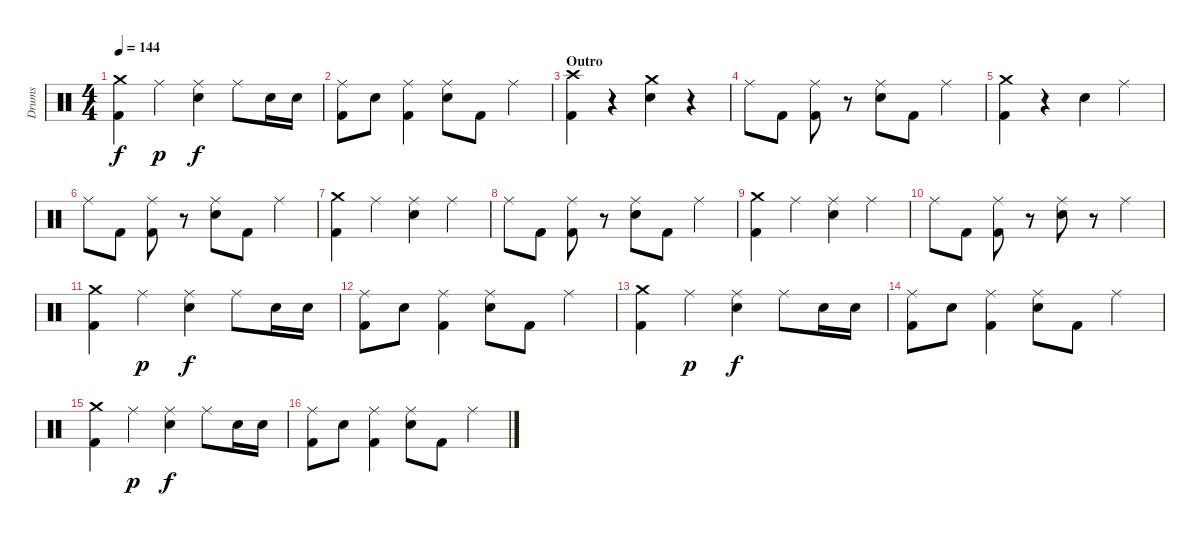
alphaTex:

\track ("Drums" "Drums") {instrument percussion}
\staff {score}
\articulation defaults
\ts (4 4)
\tempo 144
\clef neutral
\ks c
("Crash medium (hit)" "Kick (hit) 2").4{dy f} "Ride (middle)".4{dy p} ("Ride (middle)" "Snare (hit) 2").4{dy f} "Ride (middle)".8 "Snare (hit) 2".16 "Snare (hit) 2".16 |
("Ride (middle)" "Kick (hit) 2").8 "Snare (hit) 2".8 ("Ride (middle)" "Kick (hit) 2").4 ("Ride (middle)" "Snare (hit) 2").8 "Kick (hit) 2".8 "Ride (middle)".4 |
\section ("" "Outro")
("Crash high (hit)" "Kick (hit) 2").4 r.4 ("Crash medium (hit)" "Snare (hit) 2").4 r.4 |
"Ride (middle)".8 "Kick (hit) 2".8 ("Ride (middle)" "Kick (hit) 2").8 r.8 ("Ride (middle)" "Snare (hit) 2").8 "Kick (hit) 2".8 "Ride (middle)".4 |
("Crash medium (hit)" "Kick (hit) 2").4 r.4 "Snare (hit) 2".4 "Ride (middle)".4 |
"Ride (middle)".8 "Kick (hit) 2".8 ("Ride (middle)" "Kick (hit) 2").8 r.8 ("Ride (middle)" "Snare (hit) 2").8 "Kick (hit) 2".8 "Ride (middle)".4 |
("Crash medium (hit)" "Kick (hit) 2").4 "Ride (middle)".4 ("Ride (middle)" "Snare (hit) 2").4 "Ride (middle)".4 |
"Ride (middle)".8 "Kick (hit) 2".8 ("Ride (middle)" "Kick (hit) 2").8 r.8 ("Ride (middle)" "Snare (hit) 2").8 "Kick (hit) 2".8 "Ride (middle)".4 |
("Crash medium (hit)" "Kick (hit) 2").4 "Ride (middle)".4 ("Ride (middle)" "Snare (hit) 2").4 "Ride (middle)".4 |
"Ride (middle)".8 "Kick (hit) 2".8 ("Ride (middle)" "Kick (hit) 2").8 r.8 ("Ride (middle)" "Snare (hit) 2").8 r.8 "Ride (middle)".4 |
("Crash medium (hit)" "Kick (hit) 2").4 "Ride (middle)".4{dy p} ("Ride (middle)" "Snare (hit) 2").4{dy f} "Ride (middle)".8 "Snare (hit) 2".16 "Snare (hit) 2".16 |
("Ride (middle)" "Kick (hit) 2").8 "Snare (hit) 2".8 ("Ride (middle)" "Kick (hit) 2").4 ("Ride (middle)" "Snare (hit) 2").8 "Kick (hit) 2".8 "Ride (middle)".4 |
("Crash medium (hit)" "Kick (hit) 2").4 "Ride (middle)".4{dy p} ("Ride (middle)" "Snare (hit) 2").4{dy f} "Ride (middle)".8 "Snare (hit) 2".16 "Snare (hit) 2".16 |
("Ride (middle)" "Kick (hit) 2").8 "Snare (hit) 2".8 ("Ride (middle)" "Kick (hit) 2").4 ("Ride (middle)" "Snare (hit) 2").8 "Kick (hit) 2".8 "Ride (middle)".4 |
("Crash medium (hit)" "Kick (hit) 2").4 "Ride (middle)".4{dy p} ("Ride (middle)" "Snare (hit) 2").4{dy f} "Ride (middle)".8 "Snare (hit) 2".16 "Snare (hit) 2".16 |
("Ride (middle)" "Kick (hit) 2").8 "Snare (hit) 2".8 ("Ride (middle)" "Kick (hit) 2").4 ("Ride (middle)" "Snare (hit) 2").8 "Kick (hit) 2".8 "Ride (middle)".4
